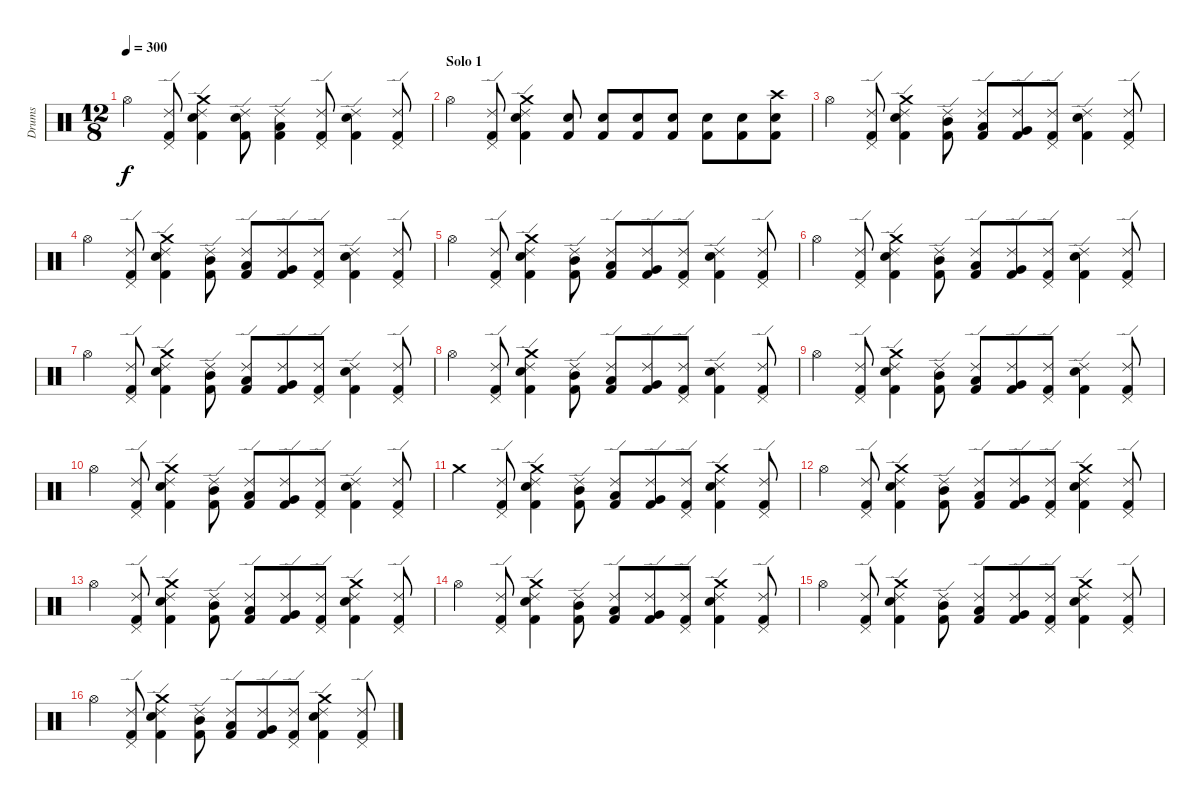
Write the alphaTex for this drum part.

\track ("Drums" "Drums") {instrument percussion}
\staff {score}
\articulation defaults
\ts (12 8)
\tempo 300
\clef neutral
\ks c "Hi-Hat (open)".4{dy f}
("Ride (edge) 2" "Pedal Hi-Hat (hit)" "Kick (hit) 2").8 ("Ride (edge) 2" "Crash medium (hit)" "Snare (hit) 2" "Kick (hit) 2").4 ("Ride (edge) 2" "Snare (hit) 2" "Kick (hit) 2").8 ("Ride (edge) 2" "Low Tom (hit)" "Kick (hit) 2").4 ("Ride (edge) 2" "Pedal Hi-Hat (hit)" "Kick (hit) 2").8 ("Ride (edge) 2" "Snare (hit) 2" "Kick (hit) 2").4 ("Ride (edge) 2" "Pedal Hi-Hat (hit)" "Kick (hit) 2").8 |
\section ("" "Solo 1")
"Hi-Hat (open)".4 ("Ride (edge) 2" "Pedal Hi-Hat (hit)" "Kick (hit) 2").8 ("Ride (edge) 2" "Crash medium (hit)" "Snare (hit) 2" "Kick (hit) 2").4 ("Snare (hit) 2" "Kick (hit) 2").8 ("Snare (hit) 2" "Kick (hit) 2").8 ("Snare (hit) 2" "Kick (hit) 2").8 ("Snare (hit) 2" "Kick (hit) 2").8 ("Snare (hit) 2" "Kick (hit) 2").8 ("Snare (hit) 2" "Kick (hit) 2").8 ("Crash high (hit)" "Snare (hit) 2" "Kick (hit) 2").8 |
"Hi-Hat (open)".4 ("Ride (edge) 2" "Pedal Hi-Hat (hit)" "Kick (hit) 2").8 ("Ride (edge) 2" "Crash medium (hit)" "Snare (hit) 2" "Kick (hit) 2").4 ("Ride (edge) 2" "Mid Tom (hit)" "Kick (hit) 2").8 ("Ride (edge) 2" "Low Tom (hit)" "Kick (hit) 2").8 ("Ride (edge) 2" "Very Low Tom (hit)" "Kick (hit) 2").8 ("Ride (edge) 2" "Pedal Hi-Hat (hit)" "Kick (hit) 2").8 ("Ride (edge) 2" "Snare (hit) 2" "Kick (hit) 2").4 ("Ride (edge) 2" "Pedal Hi-Hat (hit)" "Kick (hit) 2").8 |
"Hi-Hat (open)".4 ("Ride (edge) 2" "Pedal Hi-Hat (hit)" "Kick (hit) 2").8 ("Ride (edge) 2" "Crash medium (hit)" "Snare (hit) 2" "Kick (hit) 2").4 ("Ride (edge) 2" "Mid Tom (hit)" "Kick (hit) 2").8 ("Ride (edge) 2" "Low Tom (hit)" "Kick (hit) 2").8 ("Ride (edge) 2" "Very Low Tom (hit)" "Kick (hit) 2").8 ("Ride (edge) 2" "Pedal Hi-Hat (hit)" "Kick (hit) 2").8 ("Ride (edge) 2" "Snare (hit) 2" "Kick (hit) 2").4 ("Ride (edge) 2" "Pedal Hi-Hat (hit)" "Kick (hit) 2").8 |
"Hi-Hat (open)".4 ("Ride (edge) 2" "Pedal Hi-Hat (hit)" "Kick (hit) 2").8 ("Ride (edge) 2" "Crash medium (hit)" "Snare (hit) 2" "Kick (hit) 2").4 ("Ride (edge) 2" "Mid Tom (hit)" "Kick (hit) 2").8 ("Ride (edge) 2" "Low Tom (hit)" "Kick (hit) 2").8 ("Ride (edge) 2" "Very Low Tom (hit)" "Kick (hit) 2").8 ("Ride (edge) 2" "Pedal Hi-Hat (hit)" "Kick (hit) 2").8 ("Ride (edge) 2" "Snare (hit) 2" "Kick (hit) 2").4 ("Ride (edge) 2" "Pedal Hi-Hat (hit)" "Kick (hit) 2").8 |
"Hi-Hat (open)".4 ("Ride (edge) 2" "Pedal Hi-Hat (hit)" "Kick (hit) 2").8 ("Ride (edge) 2" "Crash medium (hit)" "Snare (hit) 2" "Kick (hit) 2").4 ("Ride (edge) 2" "Mid Tom (hit)" "Kick (hit) 2").8 ("Ride (edge) 2" "Low Tom (hit)" "Kick (hit) 2").8 ("Ride (edge) 2" "Very Low Tom (hit)" "Kick (hit) 2").8 ("Ride (edge) 2" "Pedal Hi-Hat (hit)" "Kick (hit) 2").8 ("Ride (edge) 2" "Snare (hit) 2" "Kick (hit) 2").4 ("Ride (edge) 2" "Pedal Hi-Hat (hit)" "Kick (hit) 2").8 |
"Hi-Hat (open)".4 ("Ride (edge) 2" "Pedal Hi-Hat (hit)" "Kick (hit) 2").8 ("Ride (edge) 2" "Crash medium (hit)" "Snare (hit) 2" "Kick (hit) 2").4 ("Ride (edge) 2" "Mid Tom (hit)" "Kick (hit) 2").8 ("Ride (edge) 2" "Low Tom (hit)" "Kick (hit) 2").8 ("Ride (edge) 2" "Very Low Tom (hit)" "Kick (hit) 2").8 ("Ride (edge) 2" "Pedal Hi-Hat (hit)" "Kick (hit) 2").8 ("Ride (edge) 2" "Snare (hit) 2" "Kick (hit) 2").4 ("Ride (edge) 2" "Pedal Hi-Hat (hit)" "Kick (hit) 2").8 |
"Hi-Hat (open)".4 ("Ride (edge) 2" "Pedal Hi-Hat (hit)" "Kick (hit) 2").8 ("Ride (edge) 2" "Crash medium (hit)" "Snare (hit) 2" "Kick (hit) 2").4 ("Ride (edge) 2" "Mid Tom (hit)" "Kick (hit) 2").8 ("Ride (edge) 2" "Low Tom (hit)" "Kick (hit) 2").8 ("Ride (edge) 2" "Very Low Tom (hit)" "Kick (hit) 2").8 ("Ride (edge) 2" "Pedal Hi-Hat (hit)" "Kick (hit) 2").8 ("Ride (edge) 2" "Snare (hit) 2" "Kick (hit) 2").4 ("Ride (edge) 2" "Pedal Hi-Hat (hit)" "Kick (hit) 2").8 |
"Hi-Hat (open)".4 ("Ride (edge) 2" "Pedal Hi-Hat (hit)" "Kick (hit) 2").8 ("Ride (edge) 2" "Crash medium (hit)" "Snare (hit) 2" "Kick (hit) 2").4 ("Ride (edge) 2" "Mid Tom (hit)" "Kick (hit) 2").8 ("Ride (edge) 2" "Low Tom (hit)" "Kick (hit) 2").8 ("Ride (edge) 2" "Very Low Tom (hit)" "Kick (hit) 2").8 ("Ride (edge) 2" "Pedal Hi-Hat (hit)" "Kick (hit) 2").8 ("Ride (edge) 2" "Snare (hit) 2" "Kick (hit) 2").4 ("Ride (edge) 2" "Pedal Hi-Hat (hit)" "Kick (hit) 2").8 |
"Hi-Hat (open)".4 ("Ride (edge) 2" "Pedal Hi-Hat (hit)" "Kick (hit) 2").8 ("Ride (edge) 2" "Crash medium (hit)" "Snare (hit) 2" "Kick (hit) 2").4 ("Ride (edge) 2" "Mid Tom (hit)" "Kick (hit) 2").8 ("Ride (edge) 2" "Low Tom (hit)" "Kick (hit) 2").8 ("Ride (edge) 2" "Very Low Tom (hit)" "Kick (hit) 2").8 ("Ride (edge) 2" "Pedal Hi-Hat (hit)" "Kick (hit) 2").8 ("Ride (edge) 2" "Snare (hit) 2" "Kick (hit) 2").4 ("Ride (edge) 2" "Pedal Hi-Hat (hit)" "Kick (hit) 2").8 |
"Crash medium (hit)".4 ("Ride (edge) 2" "Pedal Hi-Hat (hit)" "Kick (hit) 2").8 ("Ride (edge) 2" "Crash medium (hit)" "Snare (hit) 2" "Kick (hit) 2").4 ("Ride (edge) 2" "Mid Tom (hit)" "Kick (hit) 2").8 ("Ride (edge) 2" "Low Tom (hit)" "Kick (hit) 2").8 ("Ride (edge) 2" "Very Low Tom (hit)" "Kick (hit) 2").8 ("Ride (edge) 2" "Pedal Hi-Hat (hit)" "Kick (hit) 2").8 ("Ride (edge) 2" "Crash medium (hit)" "Snare (hit) 2" "Kick (hit) 2").4 ("Ride (edge) 2" "Pedal Hi-Hat (hit)" "Kick (hit) 2").8 |
"Hi-Hat (open)".4 ("Ride (edge) 2" "Pedal Hi-Hat (hit)" "Kick (hit) 2").8 ("Ride (edge) 2" "Crash medium (hit)" "Snare (hit) 2" "Kick (hit) 2").4 ("Ride (edge) 2" "Mid Tom (hit)" "Kick (hit) 2").8 ("Ride (edge) 2" "Low Tom (hit)" "Kick (hit) 2").8 ("Ride (edge) 2" "Very Low Tom (hit)" "Kick (hit) 2").8 ("Ride (edge) 2" "Pedal Hi-Hat (hit)" "Kick (hit) 2").8 ("Ride (edge) 2" "Crash medium (hit)" "Snare (hit) 2" "Kick (hit) 2").4 ("Ride (edge) 2" "Pedal Hi-Hat (hit)" "Kick (hit) 2").8 |
"Hi-Hat (open)".4 ("Ride (edge) 2" "Pedal Hi-Hat (hit)" "Kick (hit) 2").8 ("Ride (edge) 2" "Crash medium (hit)" "Snare (hit) 2" "Kick (hit) 2").4 ("Ride (edge) 2" "Mid Tom (hit)" "Kick (hit) 2").8 ("Ride (edge) 2" "Low Tom (hit)" "Kick (hit) 2").8 ("Ride (edge) 2" "Very Low Tom (hit)" "Kick (hit) 2").8 ("Ride (edge) 2" "Pedal Hi-Hat (hit)" "Kick (hit) 2").8 ("Ride (edge) 2" "Crash medium (hit)" "Snare (hit) 2" "Kick (hit) 2").4 ("Ride (edge) 2" "Pedal Hi-Hat (hit)" "Kick (hit) 2").8 |
"Hi-Hat (open)".4 ("Ride (edge) 2" "Pedal Hi-Hat (hit)" "Kick (hit) 2").8 ("Ride (edge) 2" "Crash medium (hit)" "Snare (hit) 2" "Kick (hit) 2").4 ("Ride (edge) 2" "Mid Tom (hit)" "Kick (hit) 2").8 ("Ride (edge) 2" "Low Tom (hit)" "Kick (hit) 2").8 ("Ride (edge) 2" "Very Low Tom (hit)" "Kick (hit) 2").8 ("Ride (edge) 2" "Pedal Hi-Hat (hit)" "Kick (hit) 2").8 ("Ride (edge) 2" "Crash medium (hit)" "Snare (hit) 2" "Kick (hit) 2").4 ("Ride (edge) 2" "Pedal Hi-Hat (hit)" "Kick (hit) 2").8 |
"Hi-Hat (open)".4 ("Ride (edge) 2" "Pedal Hi-Hat (hit)" "Kick (hit) 2").8 ("Ride (edge) 2" "Crash medium (hit)" "Snare (hit) 2" "Kick (hit) 2").4 ("Ride (edge) 2" "Mid Tom (hit)" "Kick (hit) 2").8 ("Ride (edge) 2" "Low Tom (hit)" "Kick (hit) 2").8 ("Ride (edge) 2" "Very Low Tom (hit)" "Kick (hit) 2").8 ("Ride (edge) 2" "Pedal Hi-Hat (hit)" "Kick (hit) 2").8 ("Ride (edge) 2" "Crash medium (hit)" "Snare (hit) 2" "Kick (hit) 2").4 ("Ride (edge) 2" "Pedal Hi-Hat (hit)" "Kick (hit) 2").8 |
"Hi-Hat (open)".4 ("Ride (edge) 2" "Pedal Hi-Hat (hit)" "Kick (hit) 2").8 ("Ride (edge) 2" "Crash medium (hit)" "Snare (hit) 2" "Kick (hit) 2").4 ("Ride (edge) 2" "Mid Tom (hit)" "Kick (hit) 2").8 ("Ride (edge) 2" "Low Tom (hit)" "Kick (hit) 2").8 ("Ride (edge) 2" "Very Low Tom (hit)" "Kick (hit) 2").8 ("Ride (edge) 2" "Pedal Hi-Hat (hit)" "Kick (hit) 2").8 ("Ride (edge) 2" "Crash medium (hit)" "Snare (hit) 2" "Kick (hit) 2").4 ("Ride (edge) 2" "Pedal Hi-Hat (hit)" "Kick (hit) 2").8
